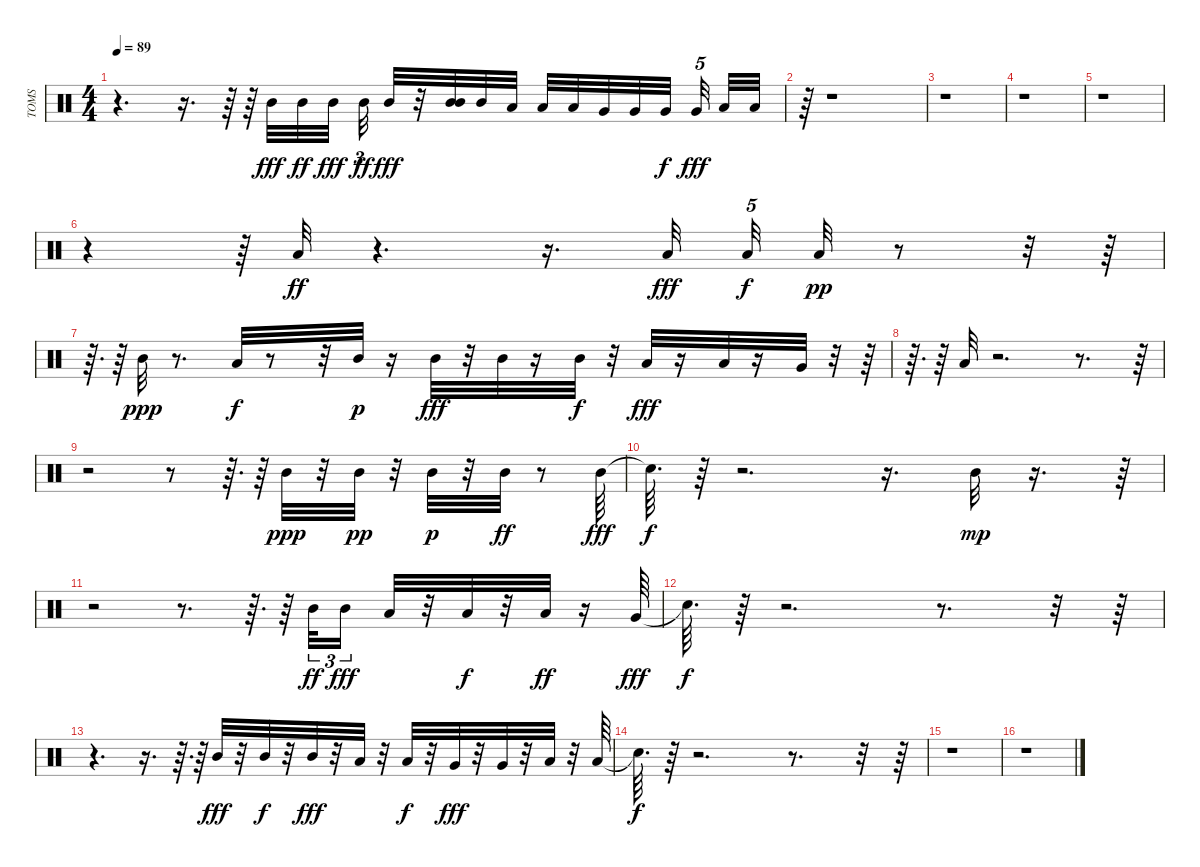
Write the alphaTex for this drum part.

\track ("TOMS" "TOMS") {instrument percussion}
\staff {score}
\articulation defaults
\ts (4 4)
\tempo 89
\clef neutral
\ks c
r.4{d dy ff} r.16{d} r.64 r.64 "Mid Tom (hit)".32{dy fff} "Mid Tom (hit)".32{dy ff} "Mid Tom (hit)".32{dy fff beam splitsecondary} "Mid Tom (hit)".32{tu (3 2) dy ff} "Mid Tom (hit)".32{dy fff} r.32 ("Mid Tom (hit)" "Mid Tom (hit)").32 "Mid Tom (hit)".32 "Low Tom (hit)".32 "Low Tom (hit)".32 "Low Tom (hit)".32 "Very Low Tom (hit)".32 "Very Low Tom (hit)".32 "Very Low Tom (hit)".32{dy f beam splitsecondary} "Very Low Tom (hit)".32{tu (5 4) dy fff beam splitsecondary} "Low Floor Tom (hit)".32 "Low Floor Tom (hit)".32 |
r.64 r.1 |
r.1 |
r.1 |
r.1 |
r.4 r.64 "Low Floor Tom (hit)".32{dy ff} r.4{d} r.16{d} "Low Floor Tom (hit)".32{dy fff beam splitsecondary} "Low Floor Tom (hit)".32{tu (5 4) dy f} "Low Floor Tom (hit)".32{dy pp} r.8 r.32 r.64 |
r.64{d} r.64 "Mid Tom (hit)".32{dy ppp} r.8{d} "Low Floor Tom (hit)".32{dy f} r.8 r.32 "Mid Tom (hit)".32{dy p} r.16 "Mid Tom (hit)".32{dy fff} r.32 "Mid Tom (hit)".32 r.16 "Mid Tom (hit)".32{dy f} r.32 "Low Tom (hit)".32{dy fff} r.16 "Low Tom (hit)".32 r.16 "Very Low Tom (hit)".32 r.32 r.64 |
r.64{d} r.64 "Low Floor Tom (hit)".32 r.2{d} r.8{d} r.64 |
r.2 r.8 r.64{d} r.64 "Mid Tom (hit)".32{dy ppp} r.32 "Mid Tom (hit)".32{dy pp} r.32 "Mid Tom (hit)".32{dy p} r.32 "Mid Tom (hit)".32{dy ff} r.8 "Mid Tom (hit)".64{dy fff} |
"Snare (hit)"{t}.64{d dy f} r.64 r.2{d} r.16{d} "Mid Tom (hit)".32{dy mp} r.16{d} r.64 |
r.2 r.8{d} r.64{d} r.64 "Mid Tom (hit)".32{tu (3 2) dy ff} "Mid Tom (hit)".16{tu (3 2) dy fff} "Low Tom (hit)".32 r.32 "Low Tom (hit)".32{dy f} r.32 "Low Tom (hit)".32{dy ff} r.16 "Very Low Tom (hit)".64{dy fff} |
"Snare (hit)"{t}.64{d dy f} r.64 r.2{d} r.8{d} r.32 r.64 |
r.4{d} r.16{d} r.64{d} r.64 "Mid Tom (hit)".32{dy fff} r.32 "Mid Tom (hit)".32{dy f} r.32 "Mid Tom (hit)".32{dy fff} r.32 "Low Tom (hit)".32 r.32 "Low Tom (hit)".32{dy f} r.32 "Very Low Tom (hit)".32{dy fff} r.32 "Very Low Tom (hit)".32 r.32 "Low Floor Tom (hit)".32 r.32 "Low Floor Tom (hit)".64 |
"Snare (hit)"{t}.64{d dy f} r.64 r.2{d} r.8{d} r.32 r.64 |
r.1 |
r.1
